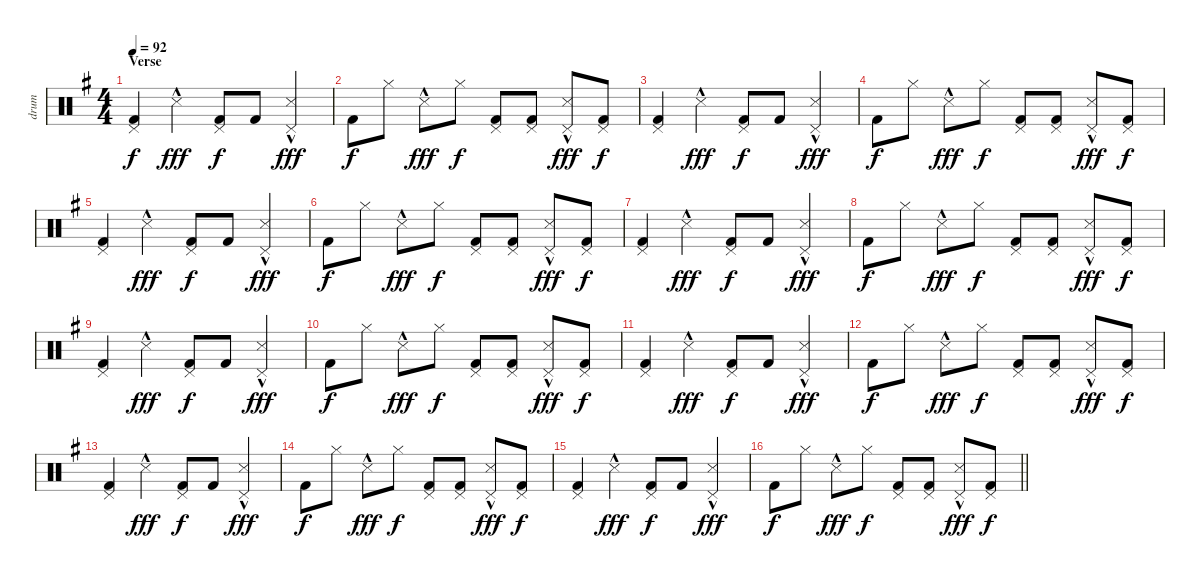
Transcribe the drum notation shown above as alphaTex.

\track ("drum" "drum") {instrument percussion}
\staff {score}
\articulation defaults
\ts (4 4)
\section ("" "Verse ")
\tempo 92
\clef neutral
\ks g
("Kick (hit) 2" "Pedal Hi-Hat (hit)").4{dy f} "Snare (side stick) 3"{hac}.4{dy fff} ("Kick (hit) 2" "Pedal Hi-Hat (hit)").8{dy f} "Kick (hit) 2".8 ("Pedal Hi-Hat (hit)"{hac} "Snare (side stick) 3"{hac}).4{dy fff} |
"Kick (hit) 2".8{dy f} "Hi-Hat (closed)".8 "Snare (side stick) 3"{hac}.8{dy fff} "Hi-Hat (closed)".8{dy f} ("Kick (hit) 2" "Pedal Hi-Hat (hit)").8 ("Kick (hit) 2" "Pedal Hi-Hat (hit)").8 ("Pedal Hi-Hat (hit)"{hac} "Snare (side stick) 3"{hac}).8{dy fff} ("Kick (hit) 2" "Pedal Hi-Hat (hit)").8{dy f} |
("Kick (hit) 2" "Pedal Hi-Hat (hit)").4 "Snare (side stick) 3"{hac}.4{dy fff} ("Kick (hit) 2" "Pedal Hi-Hat (hit)").8{dy f} "Kick (hit) 2".8 ("Pedal Hi-Hat (hit)"{hac} "Snare (side stick) 3"{hac}).4{dy fff} |
"Kick (hit) 2".8{dy f} "Hi-Hat (closed)".8 "Snare (side stick) 3"{hac}.8{dy fff} "Hi-Hat (closed)".8{dy f} ("Kick (hit) 2" "Pedal Hi-Hat (hit)").8 ("Kick (hit) 2" "Pedal Hi-Hat (hit)").8 ("Pedal Hi-Hat (hit)"{hac} "Snare (side stick) 3"{hac}).8{dy fff} ("Kick (hit) 2" "Pedal Hi-Hat (hit)").8{dy f} |
("Kick (hit) 2" "Pedal Hi-Hat (hit)").4 "Snare (side stick) 3"{hac}.4{dy fff} ("Kick (hit) 2" "Pedal Hi-Hat (hit)").8{dy f} "Kick (hit) 2".8 ("Pedal Hi-Hat (hit)"{hac} "Snare (side stick) 3"{hac}).4{dy fff} |
"Kick (hit) 2".8{dy f} "Hi-Hat (closed)".8 "Snare (side stick) 3"{hac}.8{dy fff} "Hi-Hat (closed)".8{dy f} ("Kick (hit) 2" "Pedal Hi-Hat (hit)").8 ("Kick (hit) 2" "Pedal Hi-Hat (hit)").8 ("Pedal Hi-Hat (hit)"{hac} "Snare (side stick) 3"{hac}).8{dy fff} ("Kick (hit) 2" "Pedal Hi-Hat (hit)").8{dy f} |
("Kick (hit) 2" "Pedal Hi-Hat (hit)").4 "Snare (side stick) 3"{hac}.4{dy fff} ("Kick (hit) 2" "Pedal Hi-Hat (hit)").8{dy f} "Kick (hit) 2".8 ("Pedal Hi-Hat (hit)"{hac} "Snare (side stick) 3"{hac}).4{dy fff} |
"Kick (hit) 2".8{dy f} "Hi-Hat (closed)".8 "Snare (side stick) 3"{hac}.8{dy fff} "Hi-Hat (closed)".8{dy f} ("Kick (hit) 2" "Pedal Hi-Hat (hit)").8 ("Kick (hit) 2" "Pedal Hi-Hat (hit)").8 ("Pedal Hi-Hat (hit)"{hac} "Snare (side stick) 3"{hac}).8{dy fff} ("Kick (hit) 2" "Pedal Hi-Hat (hit)").8{dy f} |
("Kick (hit) 2" "Pedal Hi-Hat (hit)").4 "Snare (side stick) 3"{hac}.4{dy fff} ("Kick (hit) 2" "Pedal Hi-Hat (hit)").8{dy f} "Kick (hit) 2".8 ("Pedal Hi-Hat (hit)"{hac} "Snare (side stick) 3"{hac}).4{dy fff} |
"Kick (hit) 2".8{dy f} "Hi-Hat (closed)".8 "Snare (side stick) 3"{hac}.8{dy fff} "Hi-Hat (closed)".8{dy f} ("Kick (hit) 2" "Pedal Hi-Hat (hit)").8 ("Kick (hit) 2" "Pedal Hi-Hat (hit)").8 ("Pedal Hi-Hat (hit)"{hac} "Snare (side stick) 3"{hac}).8{dy fff} ("Kick (hit) 2" "Pedal Hi-Hat (hit)").8{dy f} |
("Kick (hit) 2" "Pedal Hi-Hat (hit)").4 "Snare (side stick) 3"{hac}.4{dy fff} ("Kick (hit) 2" "Pedal Hi-Hat (hit)").8{dy f} "Kick (hit) 2".8 ("Pedal Hi-Hat (hit)"{hac} "Snare (side stick) 3"{hac}).4{dy fff} |
"Kick (hit) 2".8{dy f} "Hi-Hat (closed)".8 "Snare (side stick) 3"{hac}.8{dy fff} "Hi-Hat (closed)".8{dy f} ("Kick (hit) 2" "Pedal Hi-Hat (hit)").8 ("Kick (hit) 2" "Pedal Hi-Hat (hit)").8 ("Pedal Hi-Hat (hit)"{hac} "Snare (side stick) 3"{hac}).8{dy fff} ("Kick (hit) 2" "Pedal Hi-Hat (hit)").8{dy f} |
("Kick (hit) 2" "Pedal Hi-Hat (hit)").4 "Snare (side stick) 3"{hac}.4{dy fff} ("Kick (hit) 2" "Pedal Hi-Hat (hit)").8{dy f} "Kick (hit) 2".8 ("Pedal Hi-Hat (hit)"{hac} "Snare (side stick) 3"{hac}).4{dy fff} |
"Kick (hit) 2".8{dy f} "Hi-Hat (closed)".8 "Snare (side stick) 3"{hac}.8{dy fff} "Hi-Hat (closed)".8{dy f} ("Kick (hit) 2" "Pedal Hi-Hat (hit)").8 ("Kick (hit) 2" "Pedal Hi-Hat (hit)").8 ("Pedal Hi-Hat (hit)"{hac} "Snare (side stick) 3"{hac}).8{dy fff} ("Kick (hit) 2" "Pedal Hi-Hat (hit)").8{dy f} |
("Kick (hit) 2" "Pedal Hi-Hat (hit)").4 "Snare (side stick) 3"{hac}.4{dy fff} ("Kick (hit) 2" "Pedal Hi-Hat (hit)").8{dy f} "Kick (hit) 2".8 ("Pedal Hi-Hat (hit)"{hac} "Snare (side stick) 3"{hac}).4{dy fff} |
\barLineRight lightlight "Kick (hit) 2".8{dy f} "Hi-Hat (closed)".8 "Snare (side stick) 3"{hac}.8{dy fff} "Hi-Hat (closed)".8{dy f}
("Kick (hit) 2" "Pedal Hi-Hat (hit)").8 ("Kick (hit) 2" "Pedal Hi-Hat (hit)").8 ("Pedal Hi-Hat (hit)"{hac} "Snare (side stick) 3"{hac}).8{dy fff} ("Kick (hit) 2" "Pedal Hi-Hat (hit)").8{dy f}
